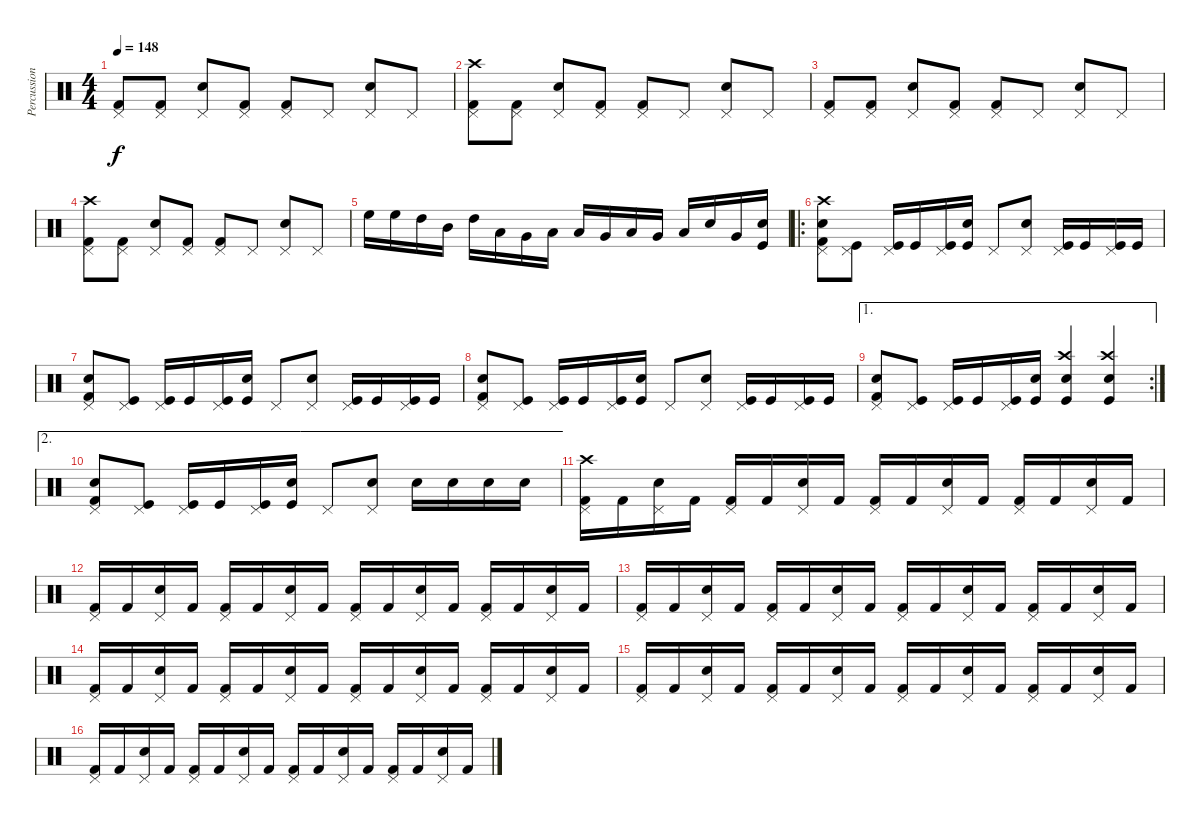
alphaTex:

\track ("Percussion" "Percussion") {instrument percussion}
\staff {score}
\articulation defaults
\ts (4 4)
\tempo 148
\clef neutral
\ks c
("Pedal Hi-Hat (hit)" "Kick (hit) 2").8{dy f} ("Pedal Hi-Hat (hit)" "Kick (hit) 2").8 ("Pedal Hi-Hat (hit)" "Snare (hit) 2").8 ("Pedal Hi-Hat (hit)" "Kick (hit) 2").8 ("Pedal Hi-Hat (hit)" "Kick (hit) 2").8 "Pedal Hi-Hat (hit)".8 ("Pedal Hi-Hat (hit)" "Snare (hit) 2").8 "Pedal Hi-Hat (hit)".8 |
("Pedal Hi-Hat (hit)" "Kick (hit) 2" "Crash high (hit)").8 ("Pedal Hi-Hat (hit)" "Kick (hit) 2").8 ("Pedal Hi-Hat (hit)" "Snare (hit) 2").8 ("Pedal Hi-Hat (hit)" "Kick (hit) 2").8 ("Pedal Hi-Hat (hit)" "Kick (hit) 2").8 "Pedal Hi-Hat (hit)".8 ("Pedal Hi-Hat (hit)" "Snare (hit) 2").8 "Pedal Hi-Hat (hit)".8 |
("Pedal Hi-Hat (hit)" "Kick (hit) 2").8 ("Pedal Hi-Hat (hit)" "Kick (hit) 2").8 ("Pedal Hi-Hat (hit)" "Snare (hit) 2").8 ("Pedal Hi-Hat (hit)" "Kick (hit) 2").8 ("Pedal Hi-Hat (hit)" "Kick (hit) 2").8 "Pedal Hi-Hat (hit)".8 ("Pedal Hi-Hat (hit)" "Snare (hit) 2").8 "Pedal Hi-Hat (hit)".8 |
("Pedal Hi-Hat (hit)" "Kick (hit) 2" "Crash high (hit)").8 ("Pedal Hi-Hat (hit)" "Kick (hit) 2").8 ("Pedal Hi-Hat (hit)" "Snare (hit) 2").8 ("Pedal Hi-Hat (hit)" "Kick (hit) 2").8 ("Pedal Hi-Hat (hit)" "Kick (hit) 2").8 "Pedal Hi-Hat (hit)".8 ("Pedal Hi-Hat (hit)" "Snare (hit) 2").8 "Pedal Hi-Hat (hit)".8 |
"High Floor Tom (hit)".16 "High Floor Tom (hit)".16 "High Tom (hit)".16 "Mid Tom (hit)".16 "High Tom (hit)".16 "Low Tom (hit)".16 "Very Low Tom (hit)".16 "Low Tom (hit)".16 "Low Floor Tom (hit)".16 "Very Low Tom (hit)".16 "Low Floor Tom (hit)".16 "Very Low Tom (hit)".16 "Low Floor Tom (hit)".16 "Electric Snare (hit)".16 "Very Low Tom (hit)".16 ("Kick (hit)" "Snare (hit) 2").16 |
\ro
("Pedal Hi-Hat (hit)" "Kick (hit) 2" "Snare (hit) 2" "Crash high (hit)").8 ("Pedal Hi-Hat (hit)" "Kick (hit)").8 ("Pedal Hi-Hat (hit)" "Kick (hit)").16 "Kick (hit)".16 ("Pedal Hi-Hat (hit)" "Kick (hit)").16 ("Snare (hit) 2" "Kick (hit)").16 "Pedal Hi-Hat (hit)".8 ("Pedal Hi-Hat (hit)" "Snare (hit) 2").8 ("Pedal Hi-Hat (hit)" "Kick (hit)").16 "Kick (hit)".16 ("Pedal Hi-Hat (hit)" "Kick (hit)").16 "Kick (hit)".16 |
("Pedal Hi-Hat (hit)" "Kick (hit) 2" "Snare (hit) 2").8 ("Pedal Hi-Hat (hit)" "Kick (hit)").8 ("Pedal Hi-Hat (hit)" "Kick (hit)").16 "Kick (hit)".16 ("Pedal Hi-Hat (hit)" "Kick (hit)").16 ("Snare (hit) 2" "Kick (hit)").16 "Pedal Hi-Hat (hit)".8 ("Pedal Hi-Hat (hit)" "Snare (hit) 2").8 ("Pedal Hi-Hat (hit)" "Kick (hit)").16 "Kick (hit)".16 ("Pedal Hi-Hat (hit)" "Kick (hit)").16 "Kick (hit)".16 |
("Pedal Hi-Hat (hit)" "Kick (hit) 2" "Snare (hit) 2").8 ("Pedal Hi-Hat (hit)" "Kick (hit)").8 ("Pedal Hi-Hat (hit)" "Kick (hit)").16 "Kick (hit)".16 ("Pedal Hi-Hat (hit)" "Kick (hit)").16 ("Snare (hit) 2" "Kick (hit)").16 "Pedal Hi-Hat (hit)".8 ("Pedal Hi-Hat (hit)" "Snare (hit) 2").8 ("Pedal Hi-Hat (hit)" "Kick (hit)").16 "Kick (hit)".16 ("Pedal Hi-Hat (hit)" "Kick (hit)").16 "Kick (hit)".16 |
\ae 1
\rc 2
("Pedal Hi-Hat (hit)" "Kick (hit) 2" "Snare (hit) 2").8 ("Pedal Hi-Hat (hit)" "Kick (hit)").8 ("Pedal Hi-Hat (hit)" "Kick (hit)").16 "Kick (hit)".16 ("Pedal Hi-Hat (hit)" "Kick (hit)").16 ("Snare (hit) 2" "Kick (hit)").16 ("Kick (hit)" "Crash high (hit)" "Snare (hit) 2").4 ("Kick (hit)" "Crash high (hit)" "Snare (hit) 2").4 |
\ae 2
("Pedal Hi-Hat (hit)" "Kick (hit) 2" "Snare (hit) 2").8 ("Pedal Hi-Hat (hit)" "Kick (hit)").8 ("Pedal Hi-Hat (hit)" "Kick (hit)").16 "Kick (hit)".16 ("Pedal Hi-Hat (hit)" "Kick (hit)").16 ("Snare (hit) 2" "Kick (hit)").16 "Pedal Hi-Hat (hit)".8 ("Pedal Hi-Hat (hit)" "Snare (hit) 2").8 "Snare (hit) 2".16 "Snare (hit) 2".16 "Snare (hit) 2".16 "Snare (hit) 2".16 |
("Pedal Hi-Hat (hit)" "Kick (hit) 2" "Crash high (hit)").16 "Kick (hit) 2".16 ("Pedal Hi-Hat (hit)" "Snare (hit) 2").16 "Kick (hit) 2".16 ("Pedal Hi-Hat (hit)" "Kick (hit) 2").16 "Kick (hit) 2".16 ("Pedal Hi-Hat (hit)" "Snare (hit) 2").16 "Kick (hit) 2".16 ("Pedal Hi-Hat (hit)" "Kick (hit) 2").16 "Kick (hit) 2".16 ("Pedal Hi-Hat (hit)" "Snare (hit) 2").16 "Kick (hit) 2".16 ("Pedal Hi-Hat (hit)" "Kick (hit) 2").16 "Kick (hit) 2".16 ("Pedal Hi-Hat (hit)" "Snare (hit) 2").16 "Kick (hit) 2".16 |
("Pedal Hi-Hat (hit)" "Kick (hit) 2").16 "Kick (hit) 2".16 ("Pedal Hi-Hat (hit)" "Snare (hit) 2").16 "Kick (hit) 2".16 ("Pedal Hi-Hat (hit)" "Kick (hit) 2").16 "Kick (hit) 2".16 ("Pedal Hi-Hat (hit)" "Snare (hit) 2").16 "Kick (hit) 2".16 ("Pedal Hi-Hat (hit)" "Kick (hit) 2").16 "Kick (hit) 2".16 ("Pedal Hi-Hat (hit)" "Snare (hit) 2").16 "Kick (hit) 2".16 ("Pedal Hi-Hat (hit)" "Kick (hit) 2").16 "Kick (hit) 2".16 ("Pedal Hi-Hat (hit)" "Snare (hit) 2").16 "Kick (hit) 2".16 |
("Pedal Hi-Hat (hit)" "Kick (hit) 2").16 "Kick (hit) 2".16 ("Pedal Hi-Hat (hit)" "Snare (hit) 2").16 "Kick (hit) 2".16 ("Pedal Hi-Hat (hit)" "Kick (hit) 2").16 "Kick (hit) 2".16 ("Pedal Hi-Hat (hit)" "Snare (hit) 2").16 "Kick (hit) 2".16 ("Pedal Hi-Hat (hit)" "Kick (hit) 2").16 "Kick (hit) 2".16 ("Pedal Hi-Hat (hit)" "Snare (hit) 2").16 "Kick (hit) 2".16 ("Pedal Hi-Hat (hit)" "Kick (hit) 2").16 "Kick (hit) 2".16 ("Pedal Hi-Hat (hit)" "Snare (hit) 2").16 "Kick (hit) 2".16 |
("Pedal Hi-Hat (hit)" "Kick (hit) 2").16 "Kick (hit) 2".16 ("Pedal Hi-Hat (hit)" "Snare (hit) 2").16 "Kick (hit) 2".16 ("Pedal Hi-Hat (hit)" "Kick (hit) 2").16 "Kick (hit) 2".16 ("Pedal Hi-Hat (hit)" "Snare (hit) 2").16 "Kick (hit) 2".16 ("Pedal Hi-Hat (hit)" "Kick (hit) 2").16 "Kick (hit) 2".16 ("Pedal Hi-Hat (hit)" "Snare (hit) 2").16 "Kick (hit) 2".16 ("Pedal Hi-Hat (hit)" "Kick (hit) 2").16 "Kick (hit) 2".16 ("Pedal Hi-Hat (hit)" "Snare (hit) 2").16 "Kick (hit) 2".16 |
("Pedal Hi-Hat (hit)" "Kick (hit) 2").16 "Kick (hit) 2".16 ("Pedal Hi-Hat (hit)" "Snare (hit) 2").16 "Kick (hit) 2".16 ("Pedal Hi-Hat (hit)" "Kick (hit) 2").16 "Kick (hit) 2".16 ("Pedal Hi-Hat (hit)" "Snare (hit) 2").16 "Kick (hit) 2".16 ("Pedal Hi-Hat (hit)" "Kick (hit) 2").16 "Kick (hit) 2".16 ("Pedal Hi-Hat (hit)" "Snare (hit) 2").16 "Kick (hit) 2".16 ("Pedal Hi-Hat (hit)" "Kick (hit) 2").16 "Kick (hit) 2".16 ("Pedal Hi-Hat (hit)" "Snare (hit) 2").16 "Kick (hit) 2".16 |
("Pedal Hi-Hat (hit)" "Kick (hit) 2").16 "Kick (hit) 2".16 ("Pedal Hi-Hat (hit)" "Snare (hit) 2").16 "Kick (hit) 2".16 ("Pedal Hi-Hat (hit)" "Kick (hit) 2").16 "Kick (hit) 2".16 ("Pedal Hi-Hat (hit)" "Snare (hit) 2").16 "Kick (hit) 2".16 ("Pedal Hi-Hat (hit)" "Kick (hit) 2").16 "Kick (hit) 2".16 ("Pedal Hi-Hat (hit)" "Snare (hit) 2").16 "Kick (hit) 2".16 ("Pedal Hi-Hat (hit)" "Kick (hit) 2").16 "Kick (hit) 2".16 ("Pedal Hi-Hat (hit)" "Snare (hit) 2").16 "Kick (hit) 2".16
